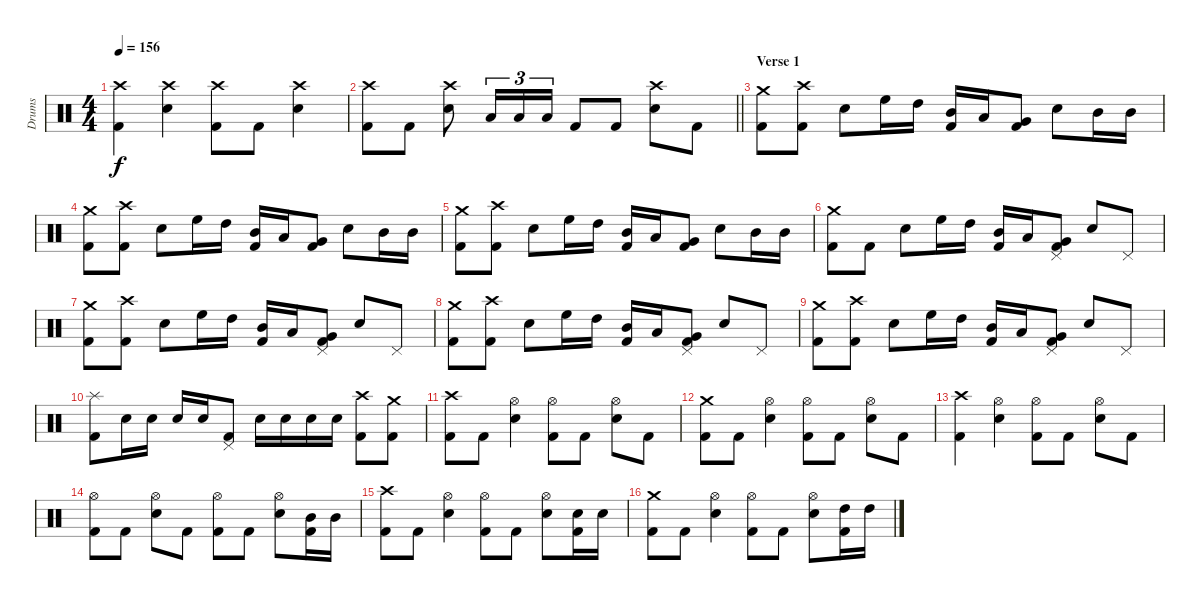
\track ("Drums" "Drums") {instrument percussion}
\staff {score}
\articulation defaults
\ts (4 4)
\tempo 156
\clef neutral
\ks c
("Crash high (hit)" "Kick (hit) 2").4{dy f} ("Crash high (hit)" "Snare (hit) 2").4 ("Crash high (hit)" "Kick (hit) 2").8 "Kick (hit) 2".8 ("Crash high (hit)" "Snare (hit) 2").4 |
\barLineRight lightlight
("Crash high (hit)" "Kick (hit) 2").8 "Kick (hit) 2".8 ("Crash high (hit)" "Snare (hit) 2").8 "Low Tom (hit)".16{tu (3 2)} "Low Tom (hit)".16{tu (3 2)} "Low Tom (hit)".16{tu (3 2)} "Kick (hit) 2".8 "Kick (hit) 2".8 ("Crash high (hit)" "Snare (hit) 2").8 "Kick (hit) 2".8 |
\section ("" "Verse 1")
("Crash medium (hit)" "Kick (hit) 2").8 ("Crash high (hit)" "Kick (hit) 2").8 "Snare (hit) 2".8 "High Floor Tom (hit)".16 "High Tom (hit)".16 ("Mid Tom (hit)" "Kick (hit) 2").16 "Low Tom (hit)".16 ("Very Low Tom (hit)" "Kick (hit) 2").8 "Snare (hit) 2".8 "Mid Tom (hit)".16 "Mid Tom (hit)".16 |
("Crash medium (hit)" "Kick (hit) 2").8 ("Crash high (hit)" "Kick (hit) 2").8 "Snare (hit) 2".8 "High Floor Tom (hit)".16 "High Tom (hit)".16 ("Mid Tom (hit)" "Kick (hit) 2").16 "Low Tom (hit)".16 ("Very Low Tom (hit)" "Kick (hit) 2").8 "Snare (hit) 2".8 "Mid Tom (hit)".16 "Mid Tom (hit)".16 |
("Crash medium (hit)" "Kick (hit) 2").8 ("Crash high (hit)" "Kick (hit) 2").8 "Snare (hit) 2".8 "High Floor Tom (hit)".16 "High Tom (hit)".16 ("Mid Tom (hit)" "Kick (hit) 2").16 "Low Tom (hit)".16 ("Very Low Tom (hit)" "Kick (hit) 2").8 "Snare (hit) 2".8 "Mid Tom (hit)".16 "Mid Tom (hit)".16 |
("Crash medium (hit)" "Kick (hit) 2").8 "Kick (hit) 2".8 "Snare (hit) 2".8 "High Floor Tom (hit)".16 "High Tom (hit)".16 ("Mid Tom (hit)" "Kick (hit) 2").16 "Low Tom (hit)".16 ("Pedal Hi-Hat (hit)" "Very Low Tom (hit)" "Kick (hit) 2").8 "Snare (hit) 2".8 "Pedal Hi-Hat (hit)".8 |
("Crash medium (hit)" "Kick (hit) 2").8 ("Crash high (hit)" "Kick (hit) 2").8 "Snare (hit) 2".8 "High Floor Tom (hit)".16 "High Tom (hit)".16 ("Mid Tom (hit)" "Kick (hit) 2").16 "Low Tom (hit)".16 ("Pedal Hi-Hat (hit)" "Very Low Tom (hit)" "Kick (hit) 2").8 "Snare (hit) 2".8 "Pedal Hi-Hat (hit)".8 |
("Crash medium (hit)" "Kick (hit) 2").8 ("Crash high (hit)" "Kick (hit) 2").8 "Snare (hit) 2".8 "High Floor Tom (hit)".16 "High Tom (hit)".16 ("Mid Tom (hit)" "Kick (hit) 2").16 "Low Tom (hit)".16 ("Pedal Hi-Hat (hit)" "Very Low Tom (hit)" "Kick (hit) 2").8 "Snare (hit) 2".8 "Pedal Hi-Hat (hit)".8 |
("Crash medium (hit)" "Kick (hit) 2").8 ("Crash high (hit)" "Kick (hit) 2").8 "Snare (hit) 2".8 "High Floor Tom (hit)".16 "High Tom (hit)".16 ("Mid Tom (hit)" "Kick (hit) 2").16 "Low Tom (hit)".16 ("Pedal Hi-Hat (hit)" "Very Low Tom (hit)" "Kick (hit) 2").8 "Snare (hit) 2".8 "Pedal Hi-Hat (hit)".8 |
("Splash (hit)" "Kick (hit) 2").8 "Snare (hit) 2".16 "Snare (hit) 2".16 "Snare (hit) 2".16 "Snare (hit) 2".16 ("Pedal Hi-Hat (hit)" "Kick (hit) 2").8 "Snare (hit) 2".16 "Snare (hit) 2".16 "Snare (hit) 2".16 "Snare (hit) 2".16 ("Crash high (hit)" "Kick (hit) 2").8 ("Crash medium (hit)" "Kick (hit) 2").8 |
("Crash high (hit)" "Kick (hit) 2").8 "Kick (hit) 2".8 ("Hi-Hat (open)" "Snare (hit) 2").4 ("Hi-Hat (open)" "Kick (hit) 2").8 "Kick (hit) 2".8 ("Hi-Hat (open)" "Snare (hit) 2").8 "Kick (hit) 2".8 |
("Crash medium (hit)" "Kick (hit) 2").8 "Kick (hit) 2".8 ("Hi-Hat (open)" "Snare (hit) 2").4 ("Hi-Hat (open)" "Kick (hit) 2").8 "Kick (hit) 2".8 ("Hi-Hat (open)" "Snare (hit) 2").8 "Kick (hit) 2".8 |
("Crash high (hit)" "Kick (hit) 2").4 ("Hi-Hat (open)" "Snare (hit) 2").4 ("Hi-Hat (open)" "Kick (hit) 2").8 "Kick (hit) 2".8 ("Hi-Hat (open)" "Snare (hit) 2").8 "Kick (hit) 2".8 |
("Hi-Hat (open)" "Kick (hit) 2").8 "Kick (hit) 2".8 ("Hi-Hat (open)" "Snare (hit) 2").8 "Kick (hit) 2".8 ("Hi-Hat (open)" "Kick (hit) 2").8 "Kick (hit) 2".8 ("Hi-Hat (open)" "Snare (hit) 2").8 ("Mid Tom (hit)" "Kick (hit) 2").16 "Mid Tom (hit)".16 |
("Crash high (hit)" "Kick (hit) 2").8 "Kick (hit) 2".8 ("Hi-Hat (open)" "Snare (hit) 2").4 ("Hi-Hat (open)" "Kick (hit) 2").8 "Kick (hit) 2".8 ("Hi-Hat (open)" "Snare (hit) 2").8 ("Snare (hit) 2" "Kick (hit) 2").16 "Snare (hit) 2".16 |
("Crash medium (hit)" "Kick (hit) 2").8 "Kick (hit) 2".8 ("Hi-Hat (open)" "Snare (hit) 2").4 ("Hi-Hat (open)" "Kick (hit) 2").8 "Kick (hit) 2".8 ("Hi-Hat (open)" "Snare (hit) 2").8 ("High Tom (hit)" "Kick (hit) 2").16 "High Tom (hit)".16
